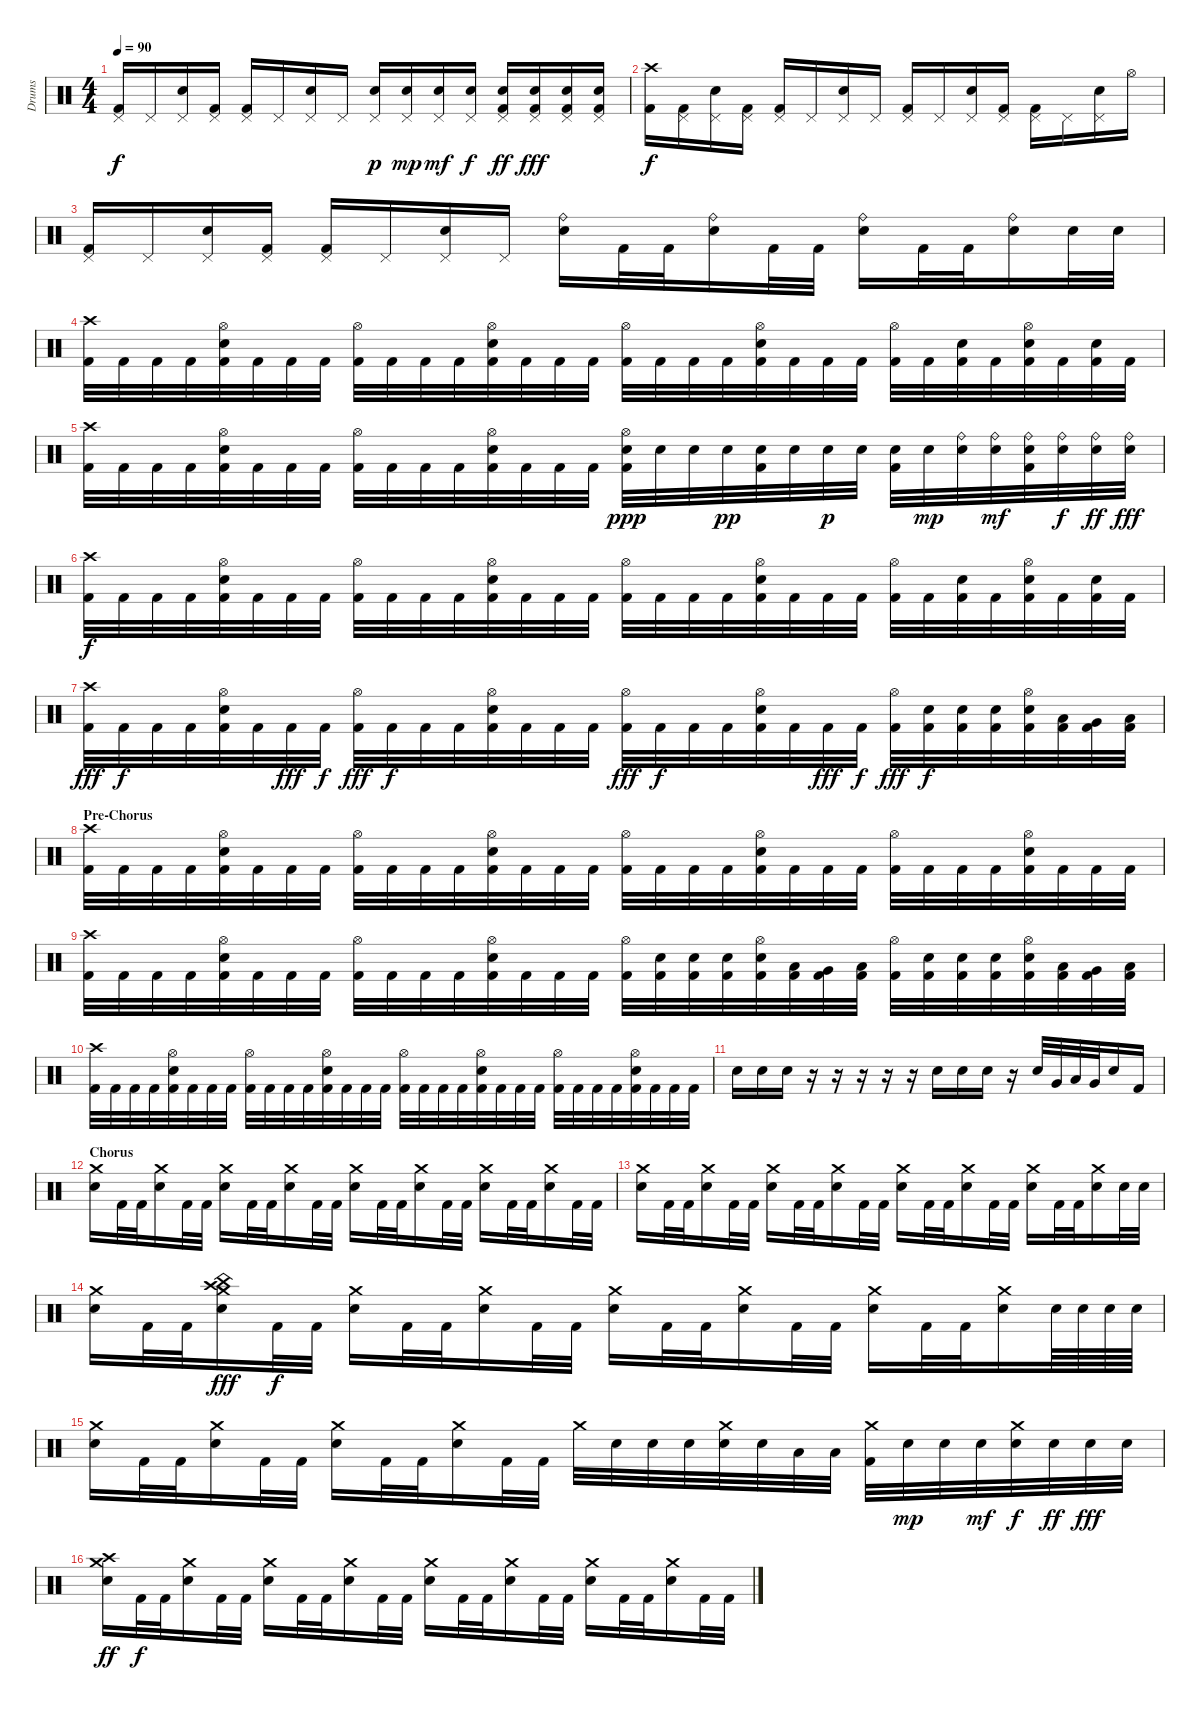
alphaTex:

\track ("Drums" "Drums") {instrument percussion}
\staff {score}
\articulation defaults
\ts (4 4)
\tempo 90
\clef neutral
\ks c
("Pedal Hi-Hat (hit)" "Kick (hit) 2").16{dy f} "Pedal Hi-Hat (hit)".16 ("Pedal Hi-Hat (hit)" "Electric Snare (hit)").16 ("Pedal Hi-Hat (hit)" "Kick (hit) 2").16 ("Pedal Hi-Hat (hit)" "Kick (hit) 2").16 "Pedal Hi-Hat (hit)".16 ("Pedal Hi-Hat (hit)" "Electric Snare (hit)").16 "Pedal Hi-Hat (hit)".16 ("Pedal Hi-Hat (hit)" "Electric Snare (hit)").16{dy p} ("Pedal Hi-Hat (hit)" "Electric Snare (hit)").16{dy mp} ("Pedal Hi-Hat (hit)" "Electric Snare (hit)").16{dy mf} ("Pedal Hi-Hat (hit)" "Electric Snare (hit)").16{dy f} ("Pedal Hi-Hat (hit)" "Electric Snare (hit)" "Kick (hit) 2").16{dy ff} ("Pedal Hi-Hat (hit)" "Electric Snare (hit)" "Kick (hit) 2").16{dy fff} ("Pedal Hi-Hat (hit)" "Electric Snare (hit)" "Kick (hit) 2").16 ("Pedal Hi-Hat (hit)" "Electric Snare (hit)" "Kick (hit) 2").16 |
("Crash high (hit)" "Kick (hit) 2").16{dy f} ("Pedal Hi-Hat (hit)" "Kick (hit) 2").16 ("Pedal Hi-Hat (hit)" "Electric Snare (hit)").16 ("Pedal Hi-Hat (hit)" "Kick (hit) 2").16 ("Pedal Hi-Hat (hit)" "Kick (hit) 2").16 "Pedal Hi-Hat (hit)".16 ("Pedal Hi-Hat (hit)" "Electric Snare (hit)").16 "Pedal Hi-Hat (hit)".16 ("Pedal Hi-Hat (hit)" "Kick (hit) 2").16 "Pedal Hi-Hat (hit)".16 ("Pedal Hi-Hat (hit)" "Electric Snare (hit)").16 ("Pedal Hi-Hat (hit)" "Kick (hit) 2").16 ("Pedal Hi-Hat (hit)" "Kick (hit) 2").16 "Pedal Hi-Hat (hit)".16 ("Pedal Hi-Hat (hit)" "Electric Snare (hit)").16 "Hi-Hat (open)".16 |
("Pedal Hi-Hat (hit)" "Kick (hit) 2").16 "Pedal Hi-Hat (hit)".16 ("Pedal Hi-Hat (hit)" "Electric Snare (hit)").16 ("Pedal Hi-Hat (hit)" "Kick (hit) 2").16 ("Pedal Hi-Hat (hit)" "Kick (hit) 2").16 "Pedal Hi-Hat (hit)".16 ("Pedal Hi-Hat (hit)" "Electric Snare (hit)").16 "Pedal Hi-Hat (hit)".16 ("Ride (bell)" "Electric Snare (hit)").16 "Kick (hit) 2".32 "Kick (hit) 2".32 ("Ride (bell)" "Electric Snare (hit)").16 "Kick (hit) 2".32 "Kick (hit) 2".32 ("Ride (bell)" "Electric Snare (hit)").16 "Kick (hit) 2".32 "Kick (hit) 2".32 ("Ride (bell)" "Electric Snare (hit)").16 "Electric Snare (hit)".32 "Electric Snare (hit)".32 |
("Crash high (hit)" "Kick (hit) 2").32 "Kick (hit) 2".32 "Kick (hit) 2".32 "Kick (hit) 2".32 ("Hi-Hat (open)" "Electric Snare (hit)" "Kick (hit) 2").32 "Kick (hit) 2".32 "Kick (hit) 2".32 "Kick (hit) 2".32 ("Hi-Hat (open)" "Kick (hit) 2").32 "Kick (hit) 2".32 "Kick (hit) 2".32 "Kick (hit) 2".32 ("Hi-Hat (open)" "Electric Snare (hit)" "Kick (hit) 2").32 "Kick (hit) 2".32 "Kick (hit) 2".32 "Kick (hit) 2".32 ("Hi-Hat (open)" "Kick (hit) 2").32 "Kick (hit) 2".32 "Kick (hit) 2".32 "Kick (hit) 2".32 ("Hi-Hat (open)" "Electric Snare (hit)" "Kick (hit) 2").32 "Kick (hit) 2".32 "Kick (hit) 2".32 "Kick (hit) 2".32 ("Hi-Hat (open)" "Kick (hit) 2").32 "Kick (hit) 2".32 ("Electric Snare (hit)" "Kick (hit) 2").32 "Kick (hit) 2".32 ("Hi-Hat (open)" "Electric Snare (hit)" "Kick (hit) 2").32 "Kick (hit) 2".32 ("Electric Snare (hit)" "Kick (hit) 2").32 "Kick (hit) 2".32 |
("Crash high (hit)" "Kick (hit) 2").32 "Kick (hit) 2".32 "Kick (hit) 2".32 "Kick (hit) 2".32 ("Hi-Hat (open)" "Electric Snare (hit)" "Kick (hit) 2").32 "Kick (hit) 2".32 "Kick (hit) 2".32 "Kick (hit) 2".32 ("Hi-Hat (open)" "Kick (hit) 2").32 "Kick (hit) 2".32 "Kick (hit) 2".32 "Kick (hit) 2".32 ("Hi-Hat (open)" "Electric Snare (hit)" "Kick (hit) 2").32 "Kick (hit) 2".32 "Kick (hit) 2".32 "Kick (hit) 2".32 ("Hi-Hat (open)" "Electric Snare (hit)" "Kick (hit) 2").32{dy ppp} "Electric Snare (hit)".32 "Electric Snare (hit)".32 "Electric Snare (hit)".32{dy pp} ("Electric Snare (hit)" "Kick (hit) 2").32 "Electric Snare (hit)".32 "Electric Snare (hit)".32{dy p} "Electric Snare (hit)".32 ("Electric Snare (hit)" "Kick (hit) 2").32 "Electric Snare (hit)".32{dy mp} ("Ride (bell)" "Electric Snare (hit)").32 ("Ride (bell)" "Electric Snare (hit)").32{dy mf} ("Ride (bell)" "Electric Snare (hit)" "Kick (hit) 2").32 ("Ride (bell)" "Electric Snare (hit)").32{dy f} ("Ride (bell)" "Electric Snare (hit)").32{dy ff} ("Ride (bell)" "Electric Snare (hit)").32{dy fff} |
("Crash high (hit)" "Kick (hit) 2").32{dy f} "Kick (hit) 2".32 "Kick (hit) 2".32 "Kick (hit) 2".32 ("Hi-Hat (open)" "Electric Snare (hit)" "Kick (hit) 2").32 "Kick (hit) 2".32 "Kick (hit) 2".32 "Kick (hit) 2".32 ("Hi-Hat (open)" "Kick (hit) 2").32 "Kick (hit) 2".32 "Kick (hit) 2".32 "Kick (hit) 2".32 ("Hi-Hat (open)" "Electric Snare (hit)" "Kick (hit) 2").32 "Kick (hit) 2".32 "Kick (hit) 2".32 "Kick (hit) 2".32 ("Hi-Hat (open)" "Kick (hit) 2").32 "Kick (hit) 2".32 "Kick (hit) 2".32 "Kick (hit) 2".32 ("Hi-Hat (open)" "Electric Snare (hit)" "Kick (hit) 2").32 "Kick (hit) 2".32 "Kick (hit) 2".32 "Kick (hit) 2".32 ("Hi-Hat (open)" "Kick (hit) 2").32 "Kick (hit) 2".32 ("Electric Snare (hit)" "Kick (hit) 2").32 "Kick (hit) 2".32 ("Hi-Hat (open)" "Electric Snare (hit)" "Kick (hit) 2").32 "Kick (hit) 2".32 ("Electric Snare (hit)" "Kick (hit) 2").32 "Kick (hit) 2".32 |
("Crash high (hit)" "Kick (hit) 2").32{dy fff} "Kick (hit) 2".32{dy f} "Kick (hit) 2".32 "Kick (hit) 2".32 ("Hi-Hat (open)" "Electric Snare (hit)" "Kick (hit) 2").32 "Kick (hit) 2".32 "Kick (hit) 2".32{dy fff} "Kick (hit) 2".32{dy f} ("Hi-Hat (open)" "Kick (hit) 2").32{dy fff} "Kick (hit) 2".32{dy f} "Kick (hit) 2".32 "Kick (hit) 2".32 ("Hi-Hat (open)" "Electric Snare (hit)" "Kick (hit) 2").32 "Kick (hit) 2".32 "Kick (hit) 2".32 "Kick (hit) 2".32 ("Hi-Hat (open)" "Kick (hit) 2").32{dy fff} "Kick (hit) 2".32{dy f} "Kick (hit) 2".32 "Kick (hit) 2".32 ("Hi-Hat (open)" "Electric Snare (hit)" "Kick (hit) 2").32 "Kick (hit) 2".32 "Kick (hit) 2".32{dy fff} "Kick (hit) 2".32{dy f} ("Hi-Hat (open)" "Kick (hit) 2").32{dy fff} ("Electric Snare (hit)" "Kick (hit) 2").32{dy f} ("Electric Snare (hit)" "Kick (hit) 2").32 ("Electric Snare (hit)" "Kick (hit) 2").32 ("Hi-Hat (open)" "Electric Snare (hit)" "Kick (hit) 2").32 ("Low Tom (hit)" "Kick (hit) 2").32 ("Very Low Tom (hit)" "Kick (hit) 2").32 ("Low Floor Tom (hit)" "Kick (hit) 2").32 |
\section ("" "Pre-Chorus")
("Crash high (hit)" "Kick (hit) 2").32 "Kick (hit) 2".32 "Kick (hit) 2".32 "Kick (hit) 2".32 ("Hi-Hat (open)" "Electric Snare (hit)" "Kick (hit) 2").32 "Kick (hit) 2".32 "Kick (hit) 2".32 "Kick (hit) 2".32 ("Hi-Hat (open)" "Kick (hit) 2").32 "Kick (hit) 2".32 "Kick (hit) 2".32 "Kick (hit) 2".32 ("Hi-Hat (open)" "Electric Snare (hit)" "Kick (hit) 2").32 "Kick (hit) 2".32 "Kick (hit) 2".32 "Kick (hit) 2".32 ("Hi-Hat (open)" "Kick (hit) 2").32 "Kick (hit) 2".32 "Kick (hit) 2".32 "Kick (hit) 2".32 ("Hi-Hat (open)" "Electric Snare (hit)" "Kick (hit) 2").32 "Kick (hit) 2".32 "Kick (hit) 2".32 "Kick (hit) 2".32 ("Hi-Hat (open)" "Kick (hit) 2").32 "Kick (hit) 2".32 "Kick (hit) 2".32 "Kick (hit) 2".32 ("Hi-Hat (open)" "Electric Snare (hit)" "Kick (hit) 2").32 "Kick (hit) 2".32 "Kick (hit) 2".32 "Kick (hit) 2".32 |
("Crash high (hit)" "Kick (hit) 2").32 "Kick (hit) 2".32 "Kick (hit) 2".32 "Kick (hit) 2".32 ("Hi-Hat (open)" "Electric Snare (hit)" "Kick (hit) 2").32 "Kick (hit) 2".32 "Kick (hit) 2".32 "Kick (hit) 2".32 ("Hi-Hat (open)" "Kick (hit) 2").32 "Kick (hit) 2".32 "Kick (hit) 2".32 "Kick (hit) 2".32 ("Hi-Hat (open)" "Electric Snare (hit)" "Kick (hit) 2").32 "Kick (hit) 2".32 "Kick (hit) 2".32 "Kick (hit) 2".32 ("Hi-Hat (open)" "Kick (hit) 2").32 ("Electric Snare (hit)" "Kick (hit) 2").32 ("Electric Snare (hit)" "Kick (hit) 2").32 ("Electric Snare (hit)" "Kick (hit) 2").32 ("Hi-Hat (open)" "Electric Snare (hit)" "Kick (hit) 2").32 ("Low Tom (hit)" "Kick (hit) 2").32 ("Very Low Tom (hit)" "Kick (hit) 2").32 ("Low Floor Tom (hit)" "Kick (hit) 2").32 ("Hi-Hat (open)" "Kick (hit) 2").32 ("Electric Snare (hit)" "Kick (hit) 2").32 ("Electric Snare (hit)" "Kick (hit) 2").32 ("Electric Snare (hit)" "Kick (hit) 2").32 ("Hi-Hat (open)" "Electric Snare (hit)" "Kick (hit) 2").32 ("Low Tom (hit)" "Kick (hit) 2").32 ("Very Low Tom (hit)" "Kick (hit) 2").32 ("Low Floor Tom (hit)" "Kick (hit) 2").32 |
("Crash high (hit)" "Kick (hit) 2").32 "Kick (hit) 2".32 "Kick (hit) 2".32 "Kick (hit) 2".32 ("Hi-Hat (open)" "Electric Snare (hit)" "Kick (hit) 2").32 "Kick (hit) 2".32 "Kick (hit) 2".32 "Kick (hit) 2".32 ("Hi-Hat (open)" "Kick (hit) 2").32 "Kick (hit) 2".32 "Kick (hit) 2".32 "Kick (hit) 2".32 ("Hi-Hat (open)" "Electric Snare (hit)" "Kick (hit) 2").32 "Kick (hit) 2".32 "Kick (hit) 2".32 "Kick (hit) 2".32 ("Hi-Hat (open)" "Kick (hit) 2").32 "Kick (hit) 2".32 "Kick (hit) 2".32 "Kick (hit) 2".32 ("Hi-Hat (open)" "Electric Snare (hit)" "Kick (hit) 2").32 "Kick (hit) 2".32 "Kick (hit) 2".32 "Kick (hit) 2".32 ("Hi-Hat (open)" "Kick (hit) 2").32 "Kick (hit) 2".32 "Kick (hit) 2".32 "Kick (hit) 2".32 ("Hi-Hat (open)" "Electric Snare (hit)" "Kick (hit) 2").32 "Kick (hit) 2".32 "Kick (hit) 2".32 "Kick (hit) 2".32 |
"Electric Snare (hit)".16 "Electric Snare (hit)".16 "Electric Snare (hit)".16 r.16 r.16 r.16 r.16 r.16 "Electric Snare (hit)".16 "Electric Snare (hit)".16 "Electric Snare (hit)".16 r.16 "Electric Snare (hit)".32 "Very Low Tom (hit)".32 "Low Floor Tom (hit)".32 "Very Low Tom (hit)".32 "Electric Snare (hit)".16 "Kick (hit) 2".16 |
\section ("" "Chorus")
("Crash medium (hit)" "Electric Snare (hit)").16 "Kick (hit) 2".32 "Kick (hit) 2".32 ("Crash medium (hit)" "Electric Snare (hit)").16 "Kick (hit) 2".32 "Kick (hit) 2".32 ("Crash medium (hit)" "Electric Snare (hit)").16 "Kick (hit) 2".32 "Kick (hit) 2".32 ("Crash medium (hit)" "Electric Snare (hit)").16 "Kick (hit) 2".32 "Kick (hit) 2".32 ("Crash medium (hit)" "Electric Snare (hit)").16 "Kick (hit) 2".32 "Kick (hit) 2".32 ("Crash medium (hit)" "Electric Snare (hit)").16 "Kick (hit) 2".32 "Kick (hit) 2".32 ("Crash medium (hit)" "Electric Snare (hit)").16 "Kick (hit) 2".32 "Kick (hit) 2".32 ("Crash medium (hit)" "Electric Snare (hit)").16 "Kick (hit) 2".32 "Kick (hit) 2".32 |
("Crash medium (hit)" "Electric Snare (hit)").16 "Kick (hit) 2".32 "Kick (hit) 2".32 ("Crash medium (hit)" "Electric Snare (hit)").16 "Kick (hit) 2".32 "Kick (hit) 2".32 ("Crash medium (hit)" "Electric Snare (hit)").16 "Kick (hit) 2".32 "Kick (hit) 2".32 ("Crash medium (hit)" "Electric Snare (hit)").16 "Kick (hit) 2".32 "Kick (hit) 2".32 ("Crash medium (hit)" "Electric Snare (hit)").16 "Kick (hit) 2".32 "Kick (hit) 2".32 ("Crash medium (hit)" "Electric Snare (hit)").16 "Kick (hit) 2".32 "Kick (hit) 2".32 ("Crash medium (hit)" "Electric Snare (hit)").16 "Kick (hit) 2".32 "Kick (hit) 2".32 ("Crash medium (hit)" "Electric Snare (hit)").16 "Electric Snare (hit)".32 "Electric Snare (hit)".32 |
("Crash medium (hit)" "Electric Snare (hit)").16 "Kick (hit) 2".32 "Kick (hit) 2".32 ("Crash high (hit)" "China (hit)" "Electric Snare (hit)" "Crash medium (hit)").16{dy fff} "Kick (hit) 2".32{dy f} "Kick (hit) 2".32 ("Crash medium (hit)" "Electric Snare (hit)").16 "Kick (hit) 2".32 "Kick (hit) 2".32 ("Crash medium (hit)" "Electric Snare (hit)").16 "Kick (hit) 2".32 "Kick (hit) 2".32 ("Crash medium (hit)" "Electric Snare (hit)").16 "Kick (hit) 2".32 "Kick (hit) 2".32 ("Crash medium (hit)" "Electric Snare (hit)").16 "Kick (hit) 2".32 "Kick (hit) 2".32 ("Crash medium (hit)" "Electric Snare (hit)").16 "Kick (hit) 2".32 "Kick (hit) 2".32 ("Crash medium (hit)" "Electric Snare (hit)").16 "Electric Snare (hit)".64 "Electric Snare (hit)".64 "Electric Snare (hit)".64 "Electric Snare (hit)".64 |
("Crash medium (hit)" "Electric Snare (hit)").16 "Kick (hit) 2".32 "Kick (hit) 2".32 ("Crash medium (hit)" "Electric Snare (hit)").16 "Kick (hit) 2".32 "Kick (hit) 2".32 ("Crash medium (hit)" "Electric Snare (hit)").16 "Kick (hit) 2".32 "Kick (hit) 2".32 ("Crash medium (hit)" "Electric Snare (hit)").16 "Kick (hit) 2".32 "Kick (hit) 2".32 "Crash medium (hit)".32 "Electric Snare (hit)".32 "Electric Snare (hit)".32 "Electric Snare (hit)".32 ("Crash medium (hit)" "Electric Snare (hit)").32 "Electric Snare (hit)".32 "Low Tom (hit)".32 "Low Tom (hit)".32 ("Crash medium (hit)" "Kick (hit) 2").32 "Electric Snare (hit)".32{dy mp} "Electric Snare (hit)".32 "Electric Snare (hit)".32{dy mf} ("Crash medium (hit)" "Electric Snare (hit)").32{dy f} "Electric Snare (hit)".32{dy ff} "Electric Snare (hit)".32{dy fff} "Electric Snare (hit)".32 |
("Crash high (hit)" "Crash medium (hit)" "Electric Snare (hit)").16{dy ff} "Kick (hit) 2".32{dy f} "Kick (hit) 2".32 ("Crash medium (hit)" "Electric Snare (hit)").16 "Kick (hit) 2".32 "Kick (hit) 2".32 ("Crash medium (hit)" "Electric Snare (hit)").16 "Kick (hit) 2".32 "Kick (hit) 2".32 ("Crash medium (hit)" "Electric Snare (hit)").16 "Kick (hit) 2".32 "Kick (hit) 2".32 ("Crash medium (hit)" "Electric Snare (hit)").16 "Kick (hit) 2".32 "Kick (hit) 2".32 ("Crash medium (hit)" "Electric Snare (hit)").16 "Kick (hit) 2".32 "Kick (hit) 2".32 ("Crash medium (hit)" "Electric Snare (hit)").16 "Kick (hit) 2".32 "Kick (hit) 2".32 ("Crash medium (hit)" "Electric Snare (hit)").16 "Kick (hit) 2".32 "Kick (hit) 2".32
